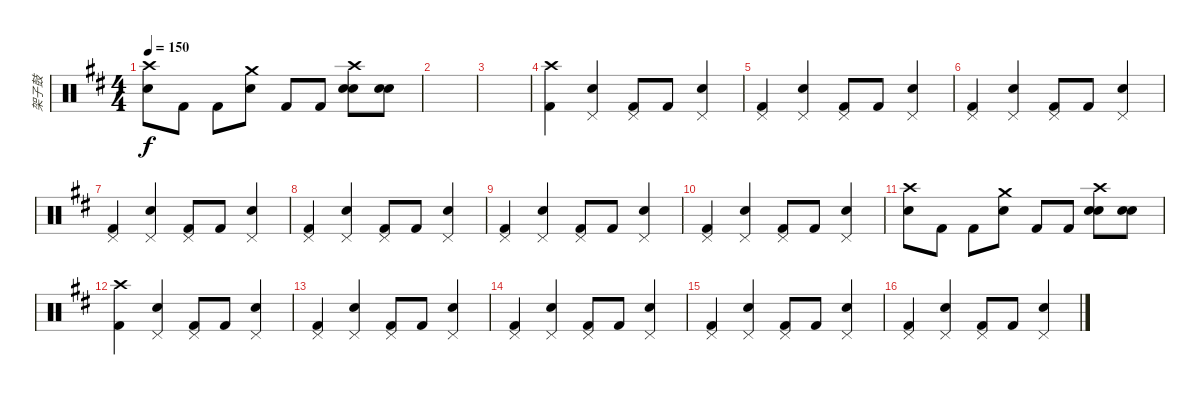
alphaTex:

\track ("架子鼓" "架子鼓") {instrument percussion}
\staff {score}
\articulation defaults
\ts (4 4)
\tempo 150
\clef neutral
\ks bminor
("Crash high (hit)" "Snare (hit) 2").8{dy f} "Kick (hit) 2".8 "Kick (hit) 2".8 ("Crash medium (hit)" "Snare (hit) 2").8 "Kick (hit) 2".8 "Kick (hit) 2".8 ("Crash high (hit)" "Snare (hit) 2" "Snare (hit) 2").8 ("Snare (hit) 2" "Snare (hit) 2").8 |
|
|
("Crash high (hit)" "Kick (hit) 2").4 ("Pedal Hi-Hat (hit)" "Snare (hit) 2").4 ("Pedal Hi-Hat (hit)" "Kick (hit) 2").8 "Kick (hit) 2".8 ("Pedal Hi-Hat (hit)" "Snare (hit) 2").4 |
("Pedal Hi-Hat (hit)" "Kick (hit) 2").4 ("Pedal Hi-Hat (hit)" "Snare (hit) 2").4 ("Pedal Hi-Hat (hit)" "Kick (hit) 2").8 "Kick (hit) 2".8 ("Pedal Hi-Hat (hit)" "Snare (hit) 2").4 |
("Pedal Hi-Hat (hit)" "Kick (hit) 2").4 ("Pedal Hi-Hat (hit)" "Snare (hit) 2").4 ("Pedal Hi-Hat (hit)" "Kick (hit) 2").8 "Kick (hit) 2".8 ("Pedal Hi-Hat (hit)" "Snare (hit) 2").4 |
("Pedal Hi-Hat (hit)" "Kick (hit) 2").4 ("Pedal Hi-Hat (hit)" "Snare (hit) 2").4 ("Pedal Hi-Hat (hit)" "Kick (hit) 2").8 "Kick (hit) 2".8 ("Pedal Hi-Hat (hit)" "Snare (hit) 2").4 |
("Pedal Hi-Hat (hit)" "Kick (hit) 2").4 ("Pedal Hi-Hat (hit)" "Snare (hit) 2").4 ("Pedal Hi-Hat (hit)" "Kick (hit) 2").8 "Kick (hit) 2".8 ("Pedal Hi-Hat (hit)" "Snare (hit) 2").4 |
("Pedal Hi-Hat (hit)" "Kick (hit) 2").4 ("Pedal Hi-Hat (hit)" "Snare (hit) 2").4 ("Pedal Hi-Hat (hit)" "Kick (hit) 2").8 "Kick (hit) 2".8 ("Pedal Hi-Hat (hit)" "Snare (hit) 2").4 |
("Pedal Hi-Hat (hit)" "Kick (hit) 2").4 ("Pedal Hi-Hat (hit)" "Snare (hit) 2").4 ("Pedal Hi-Hat (hit)" "Kick (hit) 2").8 "Kick (hit) 2".8 ("Pedal Hi-Hat (hit)" "Snare (hit) 2").4 |
("Crash high (hit)" "Snare (hit) 2").8 "Kick (hit) 2".8 "Kick (hit) 2".8 ("Crash medium (hit)" "Snare (hit) 2").8 "Kick (hit) 2".8 "Kick (hit) 2".8 ("Crash high (hit)" "Snare (hit) 2" "Snare (hit) 2").8 ("Snare (hit) 2" "Snare (hit) 2").8 |
("Crash high (hit)" "Kick (hit) 2").4 ("Pedal Hi-Hat (hit)" "Snare (hit) 2").4 ("Pedal Hi-Hat (hit)" "Kick (hit) 2").8 "Kick (hit) 2".8 ("Pedal Hi-Hat (hit)" "Snare (hit) 2").4 |
("Pedal Hi-Hat (hit)" "Kick (hit) 2").4 ("Pedal Hi-Hat (hit)" "Snare (hit) 2").4 ("Pedal Hi-Hat (hit)" "Kick (hit) 2").8 "Kick (hit) 2".8 ("Pedal Hi-Hat (hit)" "Snare (hit) 2").4 |
("Pedal Hi-Hat (hit)" "Kick (hit) 2").4 ("Pedal Hi-Hat (hit)" "Snare (hit) 2").4 ("Pedal Hi-Hat (hit)" "Kick (hit) 2").8 "Kick (hit) 2".8 ("Pedal Hi-Hat (hit)" "Snare (hit) 2").4 |
("Pedal Hi-Hat (hit)" "Kick (hit) 2").4 ("Pedal Hi-Hat (hit)" "Snare (hit) 2").4 ("Pedal Hi-Hat (hit)" "Kick (hit) 2").8 "Kick (hit) 2".8 ("Pedal Hi-Hat (hit)" "Snare (hit) 2").4 |
("Pedal Hi-Hat (hit)" "Kick (hit) 2").4 ("Pedal Hi-Hat (hit)" "Snare (hit) 2").4 ("Pedal Hi-Hat (hit)" "Kick (hit) 2").8 "Kick (hit) 2".8 ("Pedal Hi-Hat (hit)" "Snare (hit) 2").4
